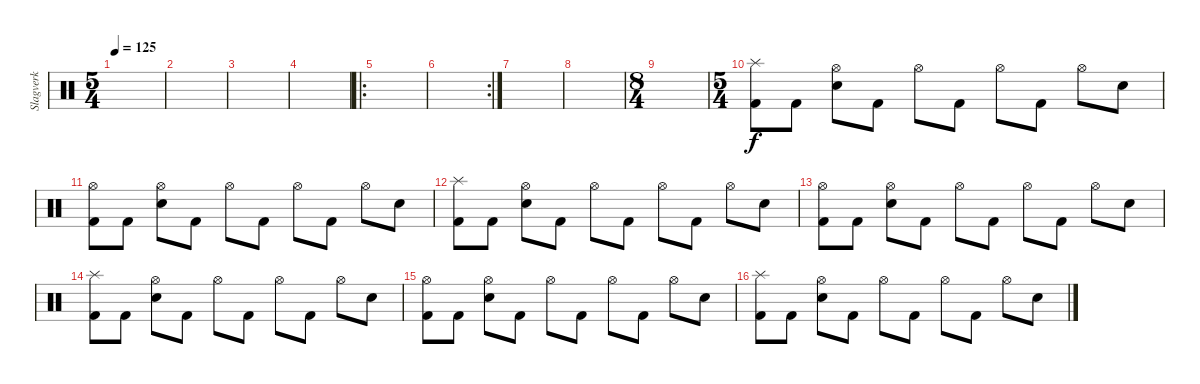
\track ("Slagverk" "Slagverk") {instrument percussion}
\staff {score}
\articulation defaults
\ts (5 4)
\tempo 125
\clef neutral
\ks c
|
|
|
|
\ro
|
\rc 2
|
|
|
\ts (8 4)
|
\ts (5 4)
("Splash (hit)" "Kick (hit) 2").8 "Kick (hit) 2".8 ("Hi-Hat (open)" "Snare (hit) 2").8 "Kick (hit) 2".8 "Hi-Hat (open)".8 "Kick (hit) 2".8 "Hi-Hat (open)".8 "Kick (hit) 2".8 "Hi-Hat (open)".8 "Snare (hit) 2".8 |
("Hi-Hat (open)" "Kick (hit) 2").8 "Kick (hit) 2".8 ("Hi-Hat (open)" "Snare (hit) 2").8 "Kick (hit) 2".8 "Hi-Hat (open)".8 "Kick (hit) 2".8 "Hi-Hat (open)".8 "Kick (hit) 2".8 "Hi-Hat (open)".8 "Snare (hit) 2".8 |
("Splash (hit)" "Kick (hit) 2").8 "Kick (hit) 2".8 ("Hi-Hat (open)" "Snare (hit) 2").8 "Kick (hit) 2".8 "Hi-Hat (open)".8 "Kick (hit) 2".8 "Hi-Hat (open)".8 "Kick (hit) 2".8 "Hi-Hat (open)".8 "Snare (hit) 2".8 |
("Hi-Hat (open)" "Kick (hit) 2").8 "Kick (hit) 2".8 ("Hi-Hat (open)" "Snare (hit) 2").8 "Kick (hit) 2".8 "Hi-Hat (open)".8 "Kick (hit) 2".8 "Hi-Hat (open)".8 "Kick (hit) 2".8 "Hi-Hat (open)".8 "Snare (hit) 2".8 |
("Splash (hit)" "Kick (hit) 2").8 "Kick (hit) 2".8 ("Hi-Hat (open)" "Snare (hit) 2").8 "Kick (hit) 2".8 "Hi-Hat (open)".8 "Kick (hit) 2".8 "Hi-Hat (open)".8 "Kick (hit) 2".8 "Hi-Hat (open)".8 "Snare (hit) 2".8 |
("Hi-Hat (open)" "Kick (hit) 2").8 "Kick (hit) 2".8 ("Hi-Hat (open)" "Snare (hit) 2").8 "Kick (hit) 2".8 "Hi-Hat (open)".8 "Kick (hit) 2".8 "Hi-Hat (open)".8 "Kick (hit) 2".8 "Hi-Hat (open)".8 "Snare (hit) 2".8 |
("Splash (hit)" "Kick (hit) 2").8 "Kick (hit) 2".8 ("Hi-Hat (open)" "Snare (hit) 2").8 "Kick (hit) 2".8 "Hi-Hat (open)".8 "Kick (hit) 2".8 "Hi-Hat (open)".8 "Kick (hit) 2".8 "Hi-Hat (open)".8 "Snare (hit) 2".8
